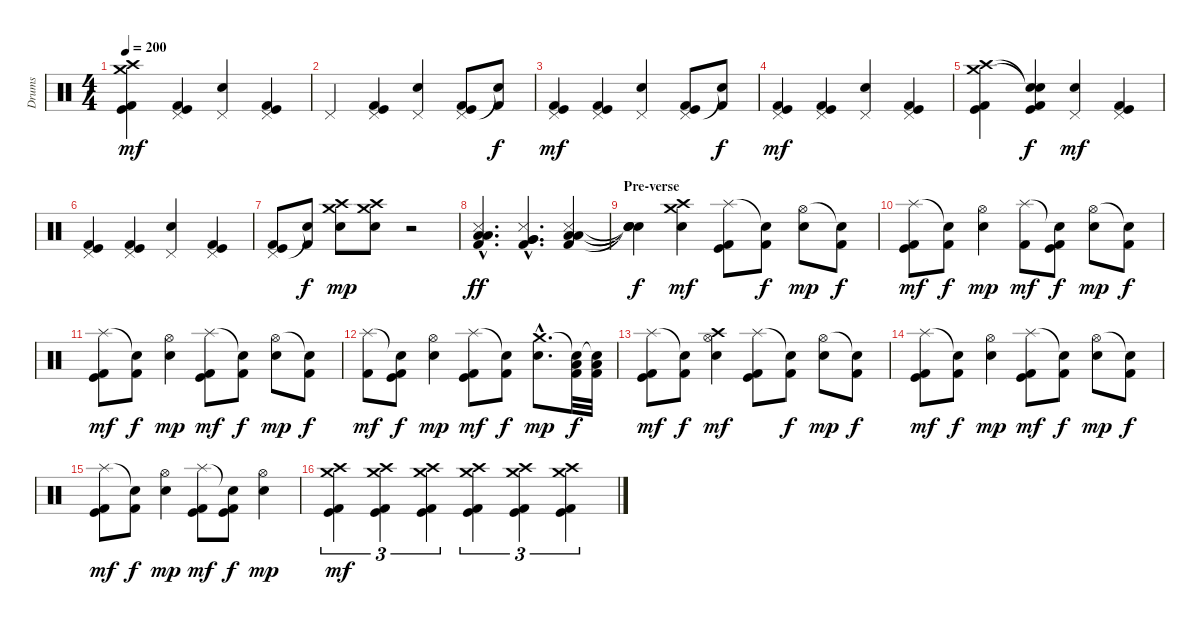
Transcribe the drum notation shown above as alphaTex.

\track ("Drums" "Drums") {instrument percussion}
\staff {score}
\articulation defaults
\ts (4 4)
\tempo 200
\clef neutral
\ks c
("Crash high (hit)" "Crash medium (hit)" "Kick (hit)" "Kick (hit) 2").4{dy mf} ("Pedal Hi-Hat (hit)" "Kick (hit)" "Kick (hit) 2").4 ("Pedal Hi-Hat (hit)" "Snare (hit) 2").4 ("Pedal Hi-Hat (hit)" "Kick (hit)" "Kick (hit) 2").4 |
"Pedal Hi-Hat (hit)".4 ("Pedal Hi-Hat (hit)" "Kick (hit)" "Kick (hit) 2").4 ("Pedal Hi-Hat (hit)" "Snare (hit) 2").4 ("Pedal Hi-Hat (hit)" "Kick (hit)" "Kick (hit) 2").8 ("Snare (hit)"{t} "Kick (hit) 2").8{dy f} |
("Pedal Hi-Hat (hit)" "Kick (hit)" "Kick (hit) 2").4{dy mf} ("Pedal Hi-Hat (hit)" "Kick (hit)" "Kick (hit) 2").4 ("Pedal Hi-Hat (hit)" "Snare (hit) 2").4 ("Pedal Hi-Hat (hit)" "Kick (hit)" "Kick (hit) 2").8 ("Snare (hit)"{t} "Kick (hit) 2").8{dy f} |
("Pedal Hi-Hat (hit)" "Kick (hit)" "Kick (hit) 2").4{dy mf} ("Pedal Hi-Hat (hit)" "Kick (hit)" "Kick (hit) 2").4 ("Pedal Hi-Hat (hit)" "Snare (hit) 2").4 ("Pedal Hi-Hat (hit)" "Kick (hit)" "Kick (hit) 2").4 |
("Crash high (hit)" "Crash medium (hit)" "Kick (hit)" "Kick (hit) 2").4 ("Snare (hit)"{t} "Snare (hit)"{t} "Kick (hit)" "Kick (hit) 2").4{dy f} ("Pedal Hi-Hat (hit)" "Snare (hit) 2").4{dy mf} ("Pedal Hi-Hat (hit)" "Kick (hit)" "Kick (hit) 2").4 |
("Pedal Hi-Hat (hit)" "Kick (hit)" "Kick (hit) 2").4 ("Pedal Hi-Hat (hit)" "Kick (hit)" "Kick (hit) 2").4 ("Pedal Hi-Hat (hit)" "Snare (hit) 2").4 ("Pedal Hi-Hat (hit)" "Kick (hit)" "Kick (hit) 2").4 |
("Pedal Hi-Hat (hit)" "Kick (hit)" "Kick (hit) 2").8 ("Snare (hit)"{t} "Kick (hit) 2").8{dy f} ("Crash high (hit)" "Crash medium (hit)" "Snare (hit) 2").8{dy mp} ("Crash high (hit)" "Crash medium (hit)" "Snare (hit) 2").8 r.2 |
("Snare (side stick) 3"{hac} "Kick (hit) 2"{hac} "Low Tom (hit)"{hac} "Low Tom (hit)"{hac}).4{d dy ff} ("Snare (side stick) 3"{hac} "Kick (hit) 2"{hac} "Very Low Tom (hit)"{hac} "Very Low Tom (hit)"{hac}).4{d} ("Snare (side stick) 3" "Kick (hit) 2" "Low Floor Tom (hit)" "Low Floor Tom (hit)").4 |
\section ("" "Pre-verse")
("Snare (hit)"{t} "Snare (hit)"{t} "Snare (hit)"{t} "Snare (hit)"{t}).4{dy f} ("Crash high (hit)" "Crash medium (hit)" "Snare (hit) 2").4{dy mf} ("Splash (hit)" "Kick (hit)" "Kick (hit) 2").8 ("Snare (hit)"{t} "Kick (hit) 2").8{dy f} ("Hi-Hat (open)" "Snare (hit) 2").8{dy mp} ("Snare (hit)"{t} "Kick (hit) 2").8{dy f} |
("Splash (hit)" "Kick (hit)" "Kick (hit) 2").8{dy mf} ("Snare (hit)"{t} "Kick (hit) 2").8{dy f} ("Hi-Hat (open)" "Snare (hit) 2").4{dy mp} ("Splash (hit)" "Kick (hit) 2").8{dy mf} ("Snare (hit)"{t} "Kick (hit)" "Kick (hit) 2").8{dy f} ("Hi-Hat (open)" "Snare (hit) 2").8{dy mp} ("Snare (hit)"{t} "Kick (hit) 2").8{dy f} |
("Splash (hit)" "Kick (hit)" "Kick (hit) 2").8{dy mf} ("Snare (hit)"{t} "Kick (hit) 2").8{dy f} ("Hi-Hat (open)" "Snare (hit) 2").4{dy mp} ("Splash (hit)" "Kick (hit)" "Kick (hit) 2").8{dy mf} ("Snare (hit)"{t} "Kick (hit) 2").8{dy f} ("Hi-Hat (open)" "Snare (hit) 2").8{dy mp} ("Snare (hit)"{t} "Kick (hit) 2").8{dy f} |
("Splash (hit)" "Kick (hit) 2").8{dy mf} ("Snare (hit)"{t} "Kick (hit)" "Kick (hit) 2").8{dy f} ("Hi-Hat (open)" "Snare (hit) 2").4{dy mp} ("Splash (hit)" "Kick (hit)" "Kick (hit) 2").8{dy mf} ("Snare (hit)"{t} "Kick (hit) 2").8{dy f} ("Crash medium (hit)"{hac} "Snare (hit) 2"{hac}).8{d dy mp} ("Snare (hit)"{t} "Low Floor Tom (hit)" "Kick (hit) 2").32{dy f} ("Snare (hit)"{t} "Low Floor Tom (hit)" "Kick (hit) 2").32 |
("Splash (hit)" "Kick (hit)" "Kick (hit) 2").8{dy mf} ("Snare (hit)"{t} "Kick (hit) 2").8{dy f} ("Crash high (hit)" "Hi-Hat (open)" "Snare (hit) 2").4{dy mf} ("Splash (hit)" "Kick (hit)" "Kick (hit) 2").8 ("Snare (hit)"{t} "Kick (hit) 2").8{dy f} ("Hi-Hat (open)" "Snare (hit) 2").8{dy mp} ("Snare (hit)"{t} "Kick (hit) 2").8{dy f} |
("Splash (hit)" "Kick (hit)" "Kick (hit) 2").8{dy mf} ("Snare (hit)"{t} "Kick (hit) 2").8{dy f} ("Hi-Hat (open)" "Snare (hit) 2").4{dy mp} ("Splash (hit)" "Kick (hit)" "Kick (hit) 2").8{dy mf} ("Snare (hit)"{t} "Kick (hit) 2").8{dy f} ("Hi-Hat (open)" "Snare (hit) 2").8{dy mp} ("Snare (hit)"{t} "Kick (hit) 2").8{dy f} |
("Splash (hit)" "Kick (hit)" "Kick (hit) 2").8{dy mf} ("Snare (hit)"{t} "Kick (hit) 2").8{dy f} ("Hi-Hat (open)" "Snare (hit) 2").4{dy mp} ("Splash (hit)" "Kick (hit)" "Kick (hit) 2").8{dy mf} ("Snare (hit)"{t} "Kick (hit)" "Kick (hit) 2").8{dy f} ("Hi-Hat (open)" "Snare (hit) 2").4{dy mp} |
("Crash high (hit)" "Crash medium (hit)" "Kick (hit)" "Kick (hit) 2").4{tu (3 2) dy mf} ("Crash high (hit)" "Crash medium (hit)" "Kick (hit)" "Kick (hit) 2").4{tu (3 2)} ("Crash high (hit)" "Crash medium (hit)" "Kick (hit)" "Kick (hit) 2").4{tu (3 2)} ("Crash high (hit)" "Crash medium (hit)" "Kick (hit)" "Kick (hit) 2").4{tu (3 2)} ("Crash high (hit)" "Crash medium (hit)" "Kick (hit)" "Kick (hit) 2").4{tu (3 2)} ("Crash high (hit)" "Crash medium (hit)" "Kick (hit)" "Kick (hit) 2").4{tu (3 2)}
